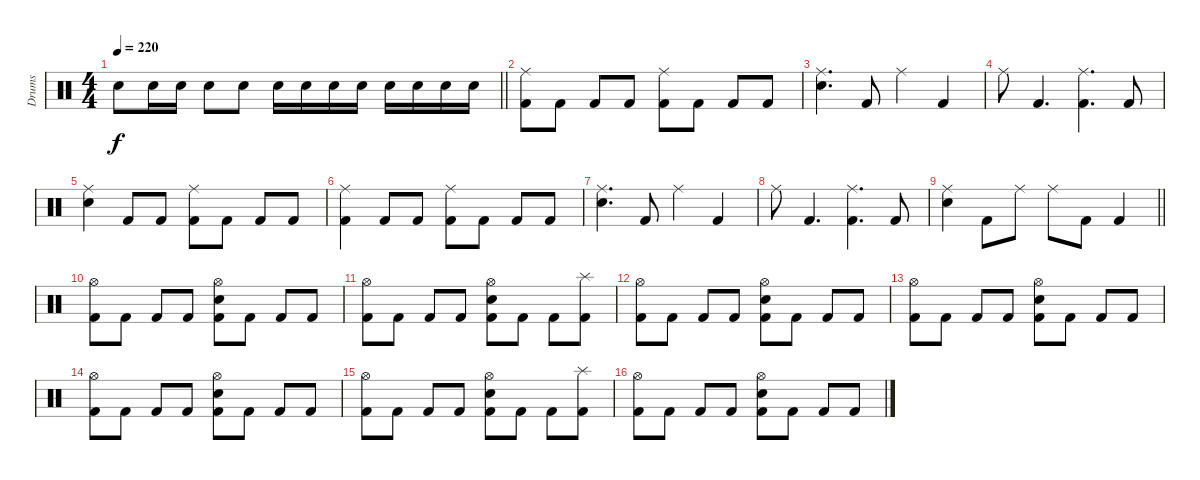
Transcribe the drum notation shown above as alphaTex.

\track ("Drums" "Drums") {instrument percussion}
\staff {score}
\articulation defaults
\ts (4 4)
\tempo 220
\clef neutral
\barLineRight lightlight
\ks c "Electric Snare (hit)".8{dy f} "Electric Snare (hit)".16 "Electric Snare (hit)".16 "Electric Snare (hit)".8 "Electric Snare (hit)".8 "Electric Snare (hit)".16 "Electric Snare (hit)".16 "Electric Snare (hit)".16 "Electric Snare (hit)".16 "Electric Snare (hit)".16 "Electric Snare (hit)".16 "Electric Snare (hit)".16 "Electric Snare (hit)".16
|
\section ("" "")
("Ride (middle)" "Kick (hit) 2").8 "Kick (hit) 2".8 "Kick (hit) 2".8 "Kick (hit) 2".8 ("Ride (middle)" "Kick (hit) 2").8 "Kick (hit) 2".8 "Kick (hit) 2".8 "Kick (hit) 2".8 |
("Ride (middle)" "Electric Snare (hit)").4{d} "Kick (hit) 2".8 "Ride (middle)".4 "Kick (hit) 2".4 |
"Ride (middle)".8 "Kick (hit) 2".4{d} ("Ride (middle)" "Kick (hit) 2").4{d} "Kick (hit) 2".8 |
("Ride (middle)" "Electric Snare (hit)").4 "Kick (hit) 2".8 "Kick (hit) 2".8 ("Ride (middle)" "Kick (hit) 2").8 "Kick (hit) 2".8 "Kick (hit) 2".8 "Kick (hit) 2".8 |
("Ride (middle)" "Kick (hit) 2").4 "Kick (hit) 2".8 "Kick (hit) 2".8 ("Ride (middle)" "Kick (hit) 2").8 "Kick (hit) 2".8 "Kick (hit) 2".8 "Kick (hit) 2".8 |
("Ride (middle)" "Electric Snare (hit)").4{d} "Kick (hit) 2".8 "Ride (middle)".4 "Kick (hit) 2".4 |
"Ride (middle)".8 "Kick (hit) 2".4{d} ("Ride (middle)" "Kick (hit) 2").4{d} "Kick (hit) 2".8 |
\barLineRight lightlight
("Ride (middle)" "Electric Snare (hit)").4 "Kick (hit) 2".8 "Ride (middle)".8 "Ride (middle)".8 "Kick (hit) 2".8 "Kick (hit) 2".4 |
\section ("" "")
("Hi-Hat (open)" "Kick (hit) 2").8 "Kick (hit) 2".8 "Kick (hit) 2".8 "Kick (hit) 2".8 ("Hi-Hat (open)" "Electric Snare (hit)" "Kick (hit) 2").8 "Kick (hit) 2".8 "Kick (hit) 2".8 "Kick (hit) 2".8 |
("Hi-Hat (open)" "Kick (hit) 2").8 "Kick (hit) 2".8 "Kick (hit) 2".8 "Kick (hit) 2".8 ("Hi-Hat (open)" "Electric Snare (hit)" "Kick (hit) 2").8 "Kick (hit) 2".8 "Kick (hit) 2".8 ("Splash (hit)" "Kick (hit) 2").8 |
("Hi-Hat (open)" "Kick (hit) 2").8 "Kick (hit) 2".8 "Kick (hit) 2".8 "Kick (hit) 2".8 ("Hi-Hat (open)" "Electric Snare (hit)" "Kick (hit) 2").8 "Kick (hit) 2".8 "Kick (hit) 2".8 "Kick (hit) 2".8 |
("Hi-Hat (open)" "Kick (hit) 2").8 "Kick (hit) 2".8 "Kick (hit) 2".8 "Kick (hit) 2".8 ("Hi-Hat (open)" "Electric Snare (hit)" "Kick (hit) 2").8 "Kick (hit) 2".8 "Kick (hit) 2".8 "Kick (hit) 2".8 |
("Hi-Hat (open)" "Kick (hit) 2").8 "Kick (hit) 2".8 "Kick (hit) 2".8 "Kick (hit) 2".8 ("Hi-Hat (open)" "Electric Snare (hit)" "Kick (hit) 2").8 "Kick (hit) 2".8 "Kick (hit) 2".8 "Kick (hit) 2".8 |
("Hi-Hat (open)" "Kick (hit) 2").8 "Kick (hit) 2".8 "Kick (hit) 2".8 "Kick (hit) 2".8 ("Hi-Hat (open)" "Electric Snare (hit)" "Kick (hit) 2").8 "Kick (hit) 2".8 "Kick (hit) 2".8 ("Splash (hit)" "Kick (hit) 2").8 |
("Hi-Hat (open)" "Kick (hit) 2").8 "Kick (hit) 2".8 "Kick (hit) 2".8 "Kick (hit) 2".8 ("Hi-Hat (open)" "Electric Snare (hit)" "Kick (hit) 2").8 "Kick (hit) 2".8 "Kick (hit) 2".8 "Kick (hit) 2".8
